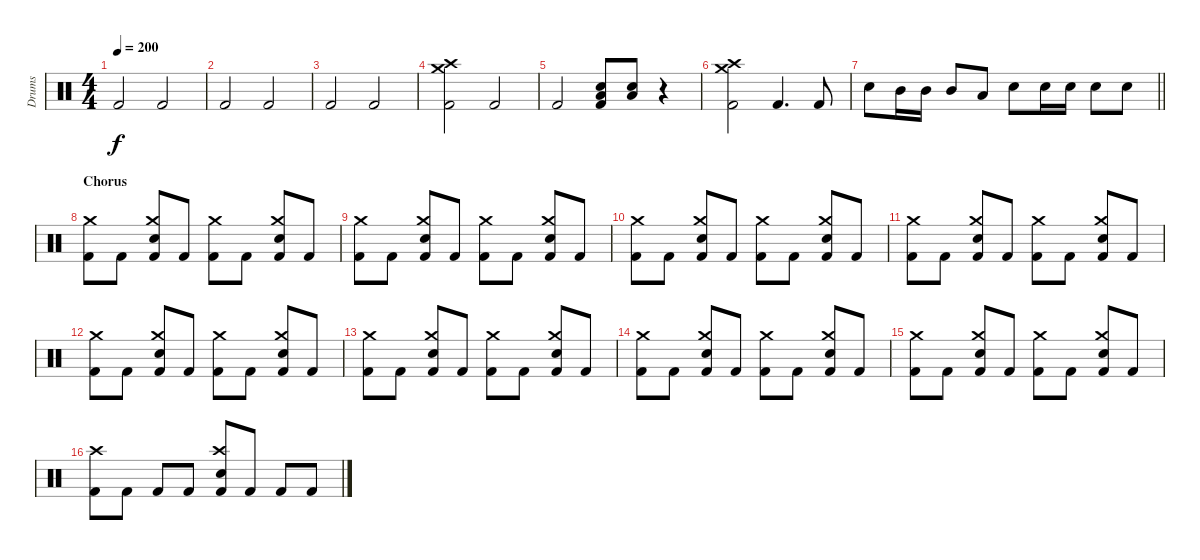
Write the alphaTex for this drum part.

\track ("Drums" "Drums") {instrument percussion}
\staff {score}
\articulation defaults
\ts (4 4)
\tempo 200
\clef neutral
\ks c "Kick (hit) 2".2{dy f} "Kick (hit) 2".2
|
"Kick (hit) 2".2 "Kick (hit) 2".2 |
"Kick (hit) 2".2 "Kick (hit) 2".2 |
("Crash medium (hit)" "Crash high (hit)" "Kick (hit) 2").2 "Kick (hit) 2".2 |
"Kick (hit) 2".2 ("Low Floor Tom (hit)" "Electric Snare (hit)" "Kick (hit) 2").8 ("Low Floor Tom (hit)" "Electric Snare (hit)").8 r.4 |
("Crash medium (hit)" "Crash high (hit)" "Kick (hit) 2").2 "Kick (hit) 2".4{d} "Kick (hit) 2".8 |
\barLineRight lightlight "Electric Snare (hit)".8 "Mid Tom (hit)".16 "Mid Tom (hit)".16 "Mid Tom (hit)".8 "Low Tom (hit)".8 "Electric Snare (hit)".8 "Electric Snare (hit)".16 "Electric Snare (hit)".16 "Electric Snare (hit)".8 "Electric Snare (hit)".8
|
\section ("" "Chorus")
("Crash medium (hit)" "Kick (hit) 2").8 "Kick (hit) 2".8 ("Crash medium (hit)" "Electric Snare (hit)" "Kick (hit) 2").8 "Kick (hit) 2".8 ("Crash medium (hit)" "Kick (hit) 2").8 "Kick (hit) 2".8 ("Crash medium (hit)" "Electric Snare (hit)" "Kick (hit) 2").8 "Kick (hit) 2".8 |
("Crash medium (hit)" "Kick (hit) 2").8 "Kick (hit) 2".8 ("Crash medium (hit)" "Electric Snare (hit)" "Kick (hit) 2").8 "Kick (hit) 2".8 ("Crash medium (hit)" "Kick (hit) 2").8 "Kick (hit) 2".8 ("Crash medium (hit)" "Electric Snare (hit)" "Kick (hit) 2").8 "Kick (hit) 2".8 |
("Crash medium (hit)" "Kick (hit) 2").8 "Kick (hit) 2".8 ("Crash medium (hit)" "Electric Snare (hit)" "Kick (hit) 2").8 "Kick (hit) 2".8 ("Crash medium (hit)" "Kick (hit) 2").8 "Kick (hit) 2".8 ("Crash medium (hit)" "Electric Snare (hit)" "Kick (hit) 2").8 "Kick (hit) 2".8 |
("Crash medium (hit)" "Kick (hit) 2").8 "Kick (hit) 2".8 ("Crash medium (hit)" "Electric Snare (hit)" "Kick (hit) 2").8 "Kick (hit) 2".8 ("Crash medium (hit)" "Kick (hit) 2").8 "Kick (hit) 2".8 ("Crash medium (hit)" "Electric Snare (hit)" "Kick (hit) 2").8 "Kick (hit) 2".8 |
("Crash medium (hit)" "Kick (hit) 2").8 "Kick (hit) 2".8 ("Crash medium (hit)" "Electric Snare (hit)" "Kick (hit) 2").8 "Kick (hit) 2".8 ("Crash medium (hit)" "Kick (hit) 2").8 "Kick (hit) 2".8 ("Crash medium (hit)" "Electric Snare (hit)" "Kick (hit) 2").8 "Kick (hit) 2".8 |
("Crash medium (hit)" "Kick (hit) 2").8 "Kick (hit) 2".8 ("Crash medium (hit)" "Electric Snare (hit)" "Kick (hit) 2").8 "Kick (hit) 2".8 ("Crash medium (hit)" "Kick (hit) 2").8 "Kick (hit) 2".8 ("Crash medium (hit)" "Electric Snare (hit)" "Kick (hit) 2").8 "Kick (hit) 2".8 |
("Crash medium (hit)" "Kick (hit) 2").8 "Kick (hit) 2".8 ("Crash medium (hit)" "Electric Snare (hit)" "Kick (hit) 2").8 "Kick (hit) 2".8 ("Crash medium (hit)" "Kick (hit) 2").8 "Kick (hit) 2".8 ("Crash medium (hit)" "Electric Snare (hit)" "Kick (hit) 2").8 "Kick (hit) 2".8 |
("Crash medium (hit)" "Kick (hit) 2").8 "Kick (hit) 2".8 ("Crash medium (hit)" "Electric Snare (hit)" "Kick (hit) 2").8 "Kick (hit) 2".8 ("Crash medium (hit)" "Kick (hit) 2").8 "Kick (hit) 2".8 ("Crash medium (hit)" "Electric Snare (hit)" "Kick (hit) 2").8 "Kick (hit) 2".8 |
("Crash high (hit)" "Kick (hit) 2").8 "Kick (hit) 2".8 "Kick (hit) 2".8 "Kick (hit) 2".8 ("Crash high (hit)" "Electric Snare (hit)" "Kick (hit) 2").8 "Kick (hit) 2".8 "Kick (hit) 2".8 "Kick (hit) 2".8
